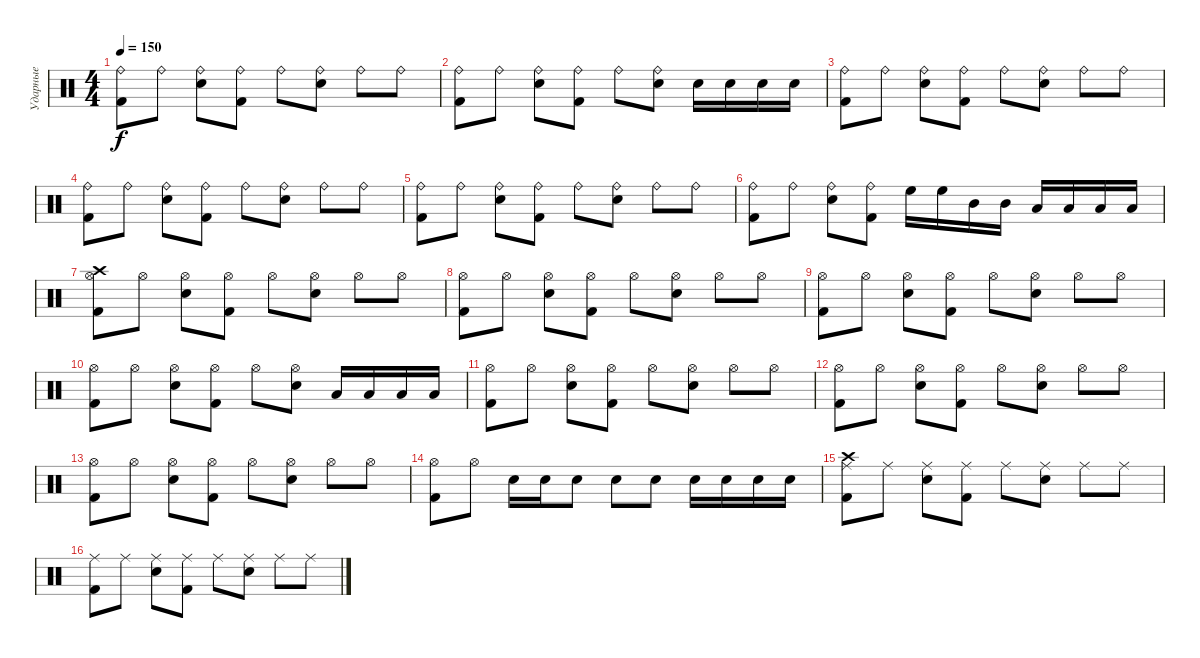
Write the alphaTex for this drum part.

\track ("Ударные" "Ударные") {instrument percussion}
\staff {score}
\articulation defaults
\ts (4 4)
\tempo 150
\clef neutral
\ks c
("Ride (bell)" "Kick (hit) 2").8{dy f} "Ride (bell)".8 ("Ride (bell)" "Snare (hit) 2").8 ("Ride (bell)" "Kick (hit) 2").8 "Ride (bell)".8 ("Ride (bell)" "Snare (hit) 2").8 "Ride (bell)".8 "Ride (bell)".8 |
("Ride (bell)" "Kick (hit) 2").8 "Ride (bell)".8 ("Ride (bell)" "Snare (hit) 2").8 ("Ride (bell)" "Kick (hit) 2").8 "Ride (bell)".8 ("Ride (bell)" "Snare (hit) 2").8 "Snare (hit) 2".16 "Snare (hit) 2".16 "Snare (hit) 2".16 "Snare (hit) 2".16 |
("Ride (bell)" "Kick (hit) 2").8 "Ride (bell)".8 ("Ride (bell)" "Snare (hit) 2").8 ("Ride (bell)" "Kick (hit) 2").8 "Ride (bell)".8 ("Ride (bell)" "Snare (hit) 2").8 "Ride (bell)".8 "Ride (bell)".8 |
("Ride (bell)" "Kick (hit) 2").8 "Ride (bell)".8 ("Ride (bell)" "Snare (hit) 2").8 ("Ride (bell)" "Kick (hit) 2").8 "Ride (bell)".8 ("Ride (bell)" "Snare (hit) 2").8 "Ride (bell)".8 "Ride (bell)".8 |
("Ride (bell)" "Kick (hit) 2").8 "Ride (bell)".8 ("Ride (bell)" "Snare (hit) 2").8 ("Ride (bell)" "Kick (hit) 2").8 "Ride (bell)".8 ("Ride (bell)" "Snare (hit) 2").8 "Ride (bell)".8 "Ride (bell)".8 |
("Ride (bell)" "Kick (hit) 2").8 "Ride (bell)".8 ("Ride (bell)" "Snare (hit) 2").8 ("Ride (bell)" "Kick (hit) 2").8 "High Floor Tom (hit)".16 "High Floor Tom (hit)".16 "Mid Tom (hit)".16 "Mid Tom (hit)".16 "Low Tom (hit)".16 "Low Tom (hit)".16 "Low Floor Tom (hit)".16 "Low Floor Tom (hit)".16 |
("Hi-Hat (open)" "Crash high (hit)" "Kick (hit) 2").8 "Hi-Hat (open)".8 ("Hi-Hat (open)" "Snare (hit) 2").8 ("Hi-Hat (open)" "Kick (hit) 2").8 "Hi-Hat (open)".8 ("Hi-Hat (open)" "Snare (hit) 2").8 "Hi-Hat (open)".8 "Hi-Hat (open)".8 |
("Hi-Hat (open)" "Kick (hit) 2").8 "Hi-Hat (open)".8 ("Hi-Hat (open)" "Snare (hit) 2").8 ("Hi-Hat (open)" "Kick (hit) 2").8 "Hi-Hat (open)".8 ("Hi-Hat (open)" "Snare (hit) 2").8 "Hi-Hat (open)".8 "Hi-Hat (open)".8 |
("Hi-Hat (open)" "Kick (hit) 2").8 "Hi-Hat (open)".8 ("Hi-Hat (open)" "Snare (hit) 2").8 ("Hi-Hat (open)" "Kick (hit) 2").8 "Hi-Hat (open)".8 ("Hi-Hat (open)" "Snare (hit) 2").8 "Hi-Hat (open)".8 "Hi-Hat (open)".8 |
("Hi-Hat (open)" "Kick (hit) 2").8 "Hi-Hat (open)".8 ("Hi-Hat (open)" "Snare (hit) 2").8 ("Hi-Hat (open)" "Kick (hit) 2").8 "Hi-Hat (open)".8 ("Hi-Hat (open)" "Snare (hit) 2").8 "Low Tom (hit)".16 "Low Tom (hit)".16 "Low Tom (hit)".16 "Low Floor Tom (hit)".16 |
("Hi-Hat (open)" "Kick (hit) 2").8 "Hi-Hat (open)".8 ("Hi-Hat (open)" "Snare (hit) 2").8 ("Hi-Hat (open)" "Kick (hit) 2").8 "Hi-Hat (open)".8 ("Hi-Hat (open)" "Snare (hit) 2").8 "Hi-Hat (open)".8 "Hi-Hat (open)".8 |
("Hi-Hat (open)" "Kick (hit) 2").8 "Hi-Hat (open)".8 ("Hi-Hat (open)" "Snare (hit) 2").8 ("Hi-Hat (open)" "Kick (hit) 2").8 "Hi-Hat (open)".8 ("Hi-Hat (open)" "Snare (hit) 2").8 "Hi-Hat (open)".8 "Hi-Hat (open)".8 |
("Hi-Hat (open)" "Kick (hit) 2").8 "Hi-Hat (open)".8 ("Hi-Hat (open)" "Snare (hit) 2").8 ("Hi-Hat (open)" "Kick (hit) 2").8 "Hi-Hat (open)".8 ("Hi-Hat (open)" "Snare (hit) 2").8 "Hi-Hat (open)".8 "Hi-Hat (open)".8 |
("Hi-Hat (open)" "Kick (hit) 2").8 "Hi-Hat (open)".8 "Snare (hit) 2".16 "Snare (hit) 2".16 "Snare (hit) 2".8 "Snare (hit) 2".8 "Snare (hit) 2".8 "Snare (hit) 2".16 "Snare (hit) 2".16 "Snare (hit) 2".16 "Snare (hit) 2".16 |
("Ride (middle)" "Crash high (hit)" "Kick (hit) 2").8 "Ride (middle)".8 ("Ride (middle)" "Snare (hit) 2").8 ("Ride (middle)" "Kick (hit) 2").8 "Ride (middle)".8 ("Ride (middle)" "Snare (hit) 2").8 "Ride (middle)".8 "Ride (middle)".8 |
("Ride (middle)" "Kick (hit) 2").8 "Ride (middle)".8 ("Ride (middle)" "Snare (hit) 2").8 ("Ride (middle)" "Kick (hit) 2").8 "Ride (middle)".8 ("Ride (middle)" "Snare (hit) 2").8 "Ride (middle)".8 "Ride (middle)".8
